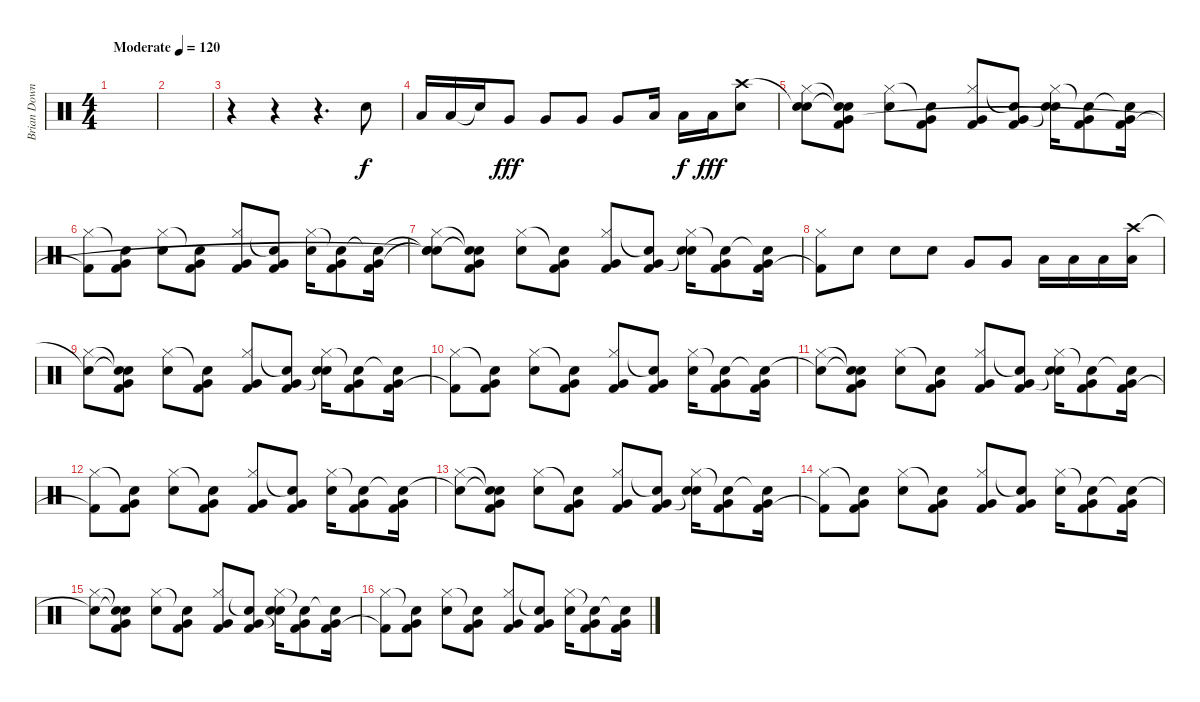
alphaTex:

\track ("Brian Downey" "Brian Down") {instrument percussion}
\staff {score}
\articulation defaults
\ts (4 4)
\tempo (120 "Moderate")
\clef neutral
\ks c
|
|
r.4 r.4 r.4{d} "Electric Snare (hit)".8 |
"Low Tom (hit)".16 "Low Tom (hit)".16 "Snare (hit)"{t}.16{dy f} "Very Low Tom (hit)".8{dy fff} "Very Low Tom (hit)".8 "Very Low Tom (hit)".8 "Very Low Tom (hit)".8 "Low Floor Tom (hit)".16 "Low Floor Tom (hit)".16{dy f} "Low Floor Tom (hit)".16{dy fff} ("Crash high (hit)" "Electric Snare (hit)").8 |
("Snare (hit)"{t} "Hi-Hat (closed)" "Snare (hit)").8 ("Snare (hit)"{t} "Snare (hit)"{t} "Kick (hit) 2" "Very Low Tom (hit)").8 ("Hi-Hat (closed)" "Electric Snare (hit)").8 ("Snare (hit)"{t} "Kick (hit) 2" "Very Low Tom (hit)").8 ("Hi-Hat (closed)" "Kick (hit) 2" "Very Low Tom (hit)").8 ("Snare (hit)"{t} "Kick (hit) 2" "Very Low Tom (hit)").8 ("Hi-Hat (closed)" "Electric Snare (hit)" "Snare (hit)"{t}).16 ("Snare (hit)"{t} "Kick (hit) 2" "Very Low Tom (hit)").8 ("Snare (hit)"{t} "Kick (hit) 2" "Very Low Tom (hit)").16 |
("Hi-Hat (closed)" "Kick (hit) 2"{t}).8 ("Snare (hit)"{t} "Kick (hit) 2" "Very Low Tom (hit)").8 ("Hi-Hat (closed)" "Electric Snare (hit)").8 ("Snare (hit)"{t} "Kick (hit) 2" "Very Low Tom (hit)").8 ("Hi-Hat (closed)" "Kick (hit) 2" "Very Low Tom (hit)").8 ("Snare (hit)"{t} "Kick (hit) 2" "Very Low Tom (hit)").8 ("Hi-Hat (closed)" "Electric Snare (hit)").16 ("Snare (hit)"{t} "Kick (hit) 2" "Very Low Tom (hit)").8 ("Snare (hit)"{t} "Kick (hit) 2" "Very Low Tom (hit)").16 |
("Snare (hit)"{t} "Hi-Hat (closed)" "Snare (hit)"{t} "Snare (hit)"{t}).8 ("Snare (hit)"{t} "Snare (hit)"{t} "Kick (hit) 2" "Very Low Tom (hit)").8 ("Hi-Hat (closed)" "Electric Snare (hit)").8 ("Snare (hit)"{t} "Kick (hit) 2" "Very Low Tom (hit)").8 ("Hi-Hat (closed)" "Kick (hit) 2" "Very Low Tom (hit)").8 ("Snare (hit)"{t} "Kick (hit) 2" "Very Low Tom (hit)").8 ("Hi-Hat (closed)" "Electric Snare (hit)" "Snare (hit)"{t}).16 ("Snare (hit)"{t} "Kick (hit) 2" "Very Low Tom (hit)").8 ("Snare (hit)"{t} "Kick (hit) 2" "Very Low Tom (hit)").16 |
("Hi-Hat (closed)" "Kick (hit) 2"{t}).8 "Electric Snare (hit)".8 "Electric Snare (hit)".8 "Electric Snare (hit)".8 "Very Low Tom (hit)".8 "Very Low Tom (hit)".8 "Low Floor Tom (hit)".16 "Low Floor Tom (hit)".16 "Low Floor Tom (hit)".16 ("Crash high (hit)" "Low Floor Tom (hit)").16 |
("Snare (hit)"{t} "Hi-Hat (closed)").8 ("Snare (hit)"{t} "Snare (hit)"{t} "Kick (hit) 2" "Very Low Tom (hit)").8 ("Hi-Hat (closed)" "Electric Snare (hit)").8 ("Snare (hit)"{t} "Kick (hit) 2" "Very Low Tom (hit)").8 ("Hi-Hat (closed)" "Kick (hit) 2" "Very Low Tom (hit)").8 ("Snare (hit)"{t} "Kick (hit) 2" "Very Low Tom (hit)").8 ("Hi-Hat (closed)" "Electric Snare (hit)" "Snare (hit)"{t}).16 ("Snare (hit)"{t} "Kick (hit) 2" "Very Low Tom (hit)").8 ("Snare (hit)"{t} "Kick (hit) 2" "Very Low Tom (hit)").16 |
("Hi-Hat (closed)" "Kick (hit) 2"{t}).8 ("Snare (hit)"{t} "Kick (hit) 2" "Very Low Tom (hit)").8 ("Hi-Hat (closed)" "Electric Snare (hit)").8 ("Snare (hit)"{t} "Kick (hit) 2" "Very Low Tom (hit)").8 ("Hi-Hat (closed)" "Kick (hit) 2" "Very Low Tom (hit)").8 ("Snare (hit)"{t} "Kick (hit) 2" "Very Low Tom (hit)").8 ("Hi-Hat (closed)" "Electric Snare (hit)").16 ("Snare (hit)"{t} "Kick (hit) 2" "Very Low Tom (hit)").8 ("Snare (hit)"{t} "Kick (hit) 2" "Very Low Tom (hit)").16 |
("Snare (hit)"{t} "Hi-Hat (closed)").8 ("Snare (hit)"{t} "Snare (hit)"{t} "Kick (hit) 2" "Very Low Tom (hit)").8 ("Hi-Hat (closed)" "Electric Snare (hit)").8 ("Snare (hit)"{t} "Kick (hit) 2" "Very Low Tom (hit)").8 ("Hi-Hat (closed)" "Kick (hit) 2" "Very Low Tom (hit)").8 ("Snare (hit)"{t} "Kick (hit) 2" "Very Low Tom (hit)").8 ("Hi-Hat (closed)" "Electric Snare (hit)" "Snare (hit)"{t}).16 ("Snare (hit)"{t} "Kick (hit) 2" "Very Low Tom (hit)").8 ("Snare (hit)"{t} "Kick (hit) 2" "Very Low Tom (hit)").16 |
("Hi-Hat (closed)" "Kick (hit) 2"{t}).8 ("Snare (hit)"{t} "Kick (hit) 2" "Very Low Tom (hit)").8 ("Hi-Hat (closed)" "Electric Snare (hit)").8 ("Snare (hit)"{t} "Kick (hit) 2" "Very Low Tom (hit)").8 ("Hi-Hat (closed)" "Kick (hit) 2" "Very Low Tom (hit)").8 ("Snare (hit)"{t} "Kick (hit) 2" "Very Low Tom (hit)").8 ("Hi-Hat (closed)" "Electric Snare (hit)").16 ("Snare (hit)"{t} "Kick (hit) 2" "Very Low Tom (hit)").8 ("Snare (hit)"{t} "Kick (hit) 2" "Very Low Tom (hit)").16 |
("Snare (hit)"{t} "Hi-Hat (closed)").8 ("Snare (hit)"{t} "Snare (hit)"{t} "Kick (hit) 2" "Very Low Tom (hit)").8 ("Hi-Hat (closed)" "Electric Snare (hit)").8 ("Snare (hit)"{t} "Kick (hit) 2" "Very Low Tom (hit)").8 ("Hi-Hat (closed)" "Kick (hit) 2" "Very Low Tom (hit)").8 ("Snare (hit)"{t} "Kick (hit) 2" "Very Low Tom (hit)").8 ("Hi-Hat (closed)" "Electric Snare (hit)" "Snare (hit)"{t}).16 ("Snare (hit)"{t} "Kick (hit) 2" "Very Low Tom (hit)").8 ("Snare (hit)"{t} "Kick (hit) 2" "Very Low Tom (hit)").16 |
("Hi-Hat (closed)" "Kick (hit) 2"{t}).8 ("Snare (hit)"{t} "Kick (hit) 2" "Very Low Tom (hit)").8 ("Hi-Hat (closed)" "Electric Snare (hit)").8 ("Snare (hit)"{t} "Kick (hit) 2" "Very Low Tom (hit)").8 ("Hi-Hat (closed)" "Kick (hit) 2" "Very Low Tom (hit)").8 ("Snare (hit)"{t} "Kick (hit) 2" "Very Low Tom (hit)").8 ("Hi-Hat (closed)" "Electric Snare (hit)").16 ("Snare (hit)"{t} "Kick (hit) 2" "Very Low Tom (hit)").8 ("Snare (hit)"{t} "Kick (hit) 2" "Very Low Tom (hit)").16 |
("Snare (hit)"{t} "Hi-Hat (closed)").8 ("Snare (hit)"{t} "Snare (hit)"{t} "Kick (hit) 2" "Very Low Tom (hit)").8 ("Hi-Hat (closed)" "Electric Snare (hit)").8 ("Snare (hit)"{t} "Kick (hit) 2" "Very Low Tom (hit)").8 ("Hi-Hat (closed)" "Kick (hit) 2" "Very Low Tom (hit)").8 ("Snare (hit)"{t} "Kick (hit) 2" "Very Low Tom (hit)").8 ("Hi-Hat (closed)" "Electric Snare (hit)" "Snare (hit)"{t}).16 ("Snare (hit)"{t} "Kick (hit) 2" "Very Low Tom (hit)").8 ("Snare (hit)"{t} "Kick (hit) 2" "Very Low Tom (hit)").16 |
("Hi-Hat (closed)" "Kick (hit) 2"{t}).8 ("Snare (hit)"{t} "Kick (hit) 2" "Very Low Tom (hit)").8 ("Hi-Hat (closed)" "Electric Snare (hit)").8 ("Snare (hit)"{t} "Kick (hit) 2" "Very Low Tom (hit)").8 ("Hi-Hat (closed)" "Kick (hit) 2" "Very Low Tom (hit)").8 ("Snare (hit)"{t} "Kick (hit) 2" "Very Low Tom (hit)").8 ("Hi-Hat (closed)" "Electric Snare (hit)").16 ("Snare (hit)"{t} "Kick (hit) 2" "Very Low Tom (hit)").8 ("Snare (hit)"{t} "Kick (hit) 2" "Very Low Tom (hit)").16
